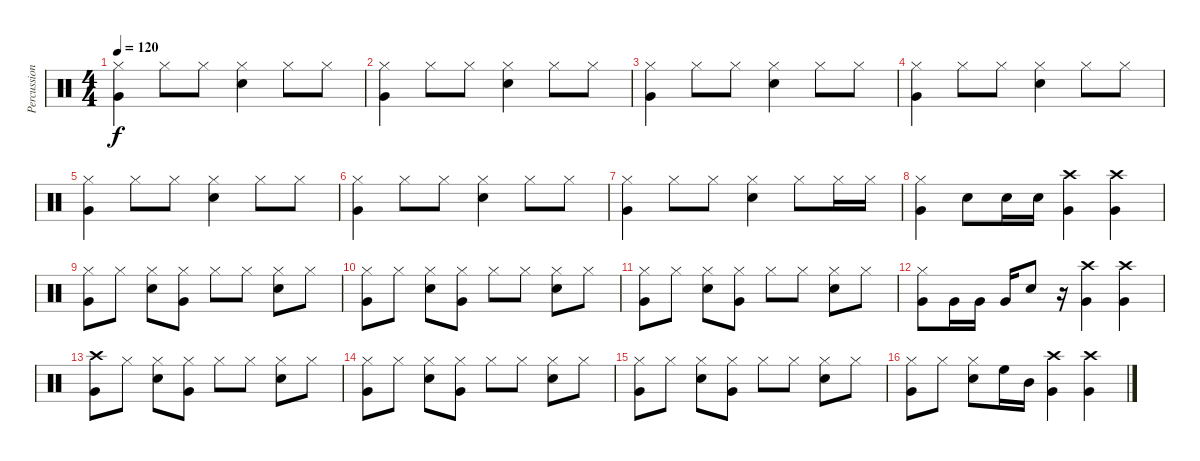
\track ("Percussion" "Percussion") {instrument percussion}
\staff {score}
\articulation defaults
\ts (4 4)
\tempo 120
\clef neutral
\ks c
("Hi-Hat (closed)" "Very Low Tom (hit)").4{dy f} "Hi-Hat (closed)".8 "Hi-Hat (closed)".8 ("Hi-Hat (closed)" "Snare (hit) 2").4 "Hi-Hat (closed)".8 "Hi-Hat (closed)".8 |
("Hi-Hat (closed)" "Very Low Tom (hit)").4 "Hi-Hat (closed)".8 "Hi-Hat (closed)".8 ("Hi-Hat (closed)" "Snare (hit) 2").4 "Hi-Hat (closed)".8 "Hi-Hat (closed)".8 |
("Hi-Hat (closed)" "Very Low Tom (hit)").4 "Hi-Hat (closed)".8 "Hi-Hat (closed)".8 ("Hi-Hat (closed)" "Snare (hit) 2").4 "Hi-Hat (closed)".8 "Hi-Hat (closed)".8 |
("Hi-Hat (closed)" "Very Low Tom (hit)").4 "Hi-Hat (closed)".8 "Hi-Hat (closed)".8 ("Hi-Hat (closed)" "Snare (hit) 2").4 "Hi-Hat (closed)".8 "Hi-Hat (closed)".8 |
("Hi-Hat (closed)" "Very Low Tom (hit)").4 "Hi-Hat (closed)".8 "Hi-Hat (closed)".8 ("Hi-Hat (closed)" "Snare (hit) 2").4 "Hi-Hat (closed)".8 "Hi-Hat (closed)".8 |
("Hi-Hat (closed)" "Very Low Tom (hit)").4 "Hi-Hat (closed)".8 "Hi-Hat (closed)".8 ("Hi-Hat (closed)" "Snare (hit) 2").4 "Hi-Hat (closed)".8 "Hi-Hat (closed)".8 |
("Hi-Hat (closed)" "Very Low Tom (hit)").4 "Hi-Hat (closed)".8 "Hi-Hat (closed)".8 ("Hi-Hat (closed)" "Snare (hit) 2").4 "Hi-Hat (closed)".8 "Hi-Hat (closed)".16 "Hi-Hat (closed)".16 |
("Hi-Hat (closed)" "Very Low Tom (hit)").4 "Snare (hit) 2".8 "Snare (hit) 2".16 "Snare (hit) 2".16 ("Crash high (hit)" "Very Low Tom (hit)").4 ("Crash high (hit)" "Very Low Tom (hit)").4 |
("Hi-Hat (closed)" "Very Low Tom (hit)").8 "Hi-Hat (closed)".8 ("Hi-Hat (closed)" "Snare (hit) 2").8 ("Hi-Hat (closed)" "Very Low Tom (hit)").8 "Hi-Hat (closed)".8 "Hi-Hat (closed)".8 ("Hi-Hat (closed)" "Snare (hit) 2").8 "Hi-Hat (closed)".8 |
("Hi-Hat (closed)" "Very Low Tom (hit)").8 "Hi-Hat (closed)".8 ("Hi-Hat (closed)" "Snare (hit) 2").8 ("Hi-Hat (closed)" "Very Low Tom (hit)").8 "Hi-Hat (closed)".8 "Hi-Hat (closed)".8 ("Hi-Hat (closed)" "Snare (hit) 2").8 "Hi-Hat (closed)".8 |
("Hi-Hat (closed)" "Very Low Tom (hit)").8 "Hi-Hat (closed)".8 ("Hi-Hat (closed)" "Snare (hit) 2").8 ("Hi-Hat (closed)" "Very Low Tom (hit)").8 "Hi-Hat (closed)".8 "Hi-Hat (closed)".8 ("Hi-Hat (closed)" "Snare (hit) 2").8 "Hi-Hat (closed)".8 |
("Hi-Hat (closed)" "Very Low Tom (hit)").8 "Very Low Tom (hit)".16 "Very Low Tom (hit)".16 "Very Low Tom (hit)".16 "Snare (hit) 2".8 r.16 ("Crash high (hit)" "Very Low Tom (hit)").4 ("Crash high (hit)" "Very Low Tom (hit)").4 |
("Crash high (hit)" "Very Low Tom (hit)").8 "Hi-Hat (closed)".8 ("Hi-Hat (closed)" "Snare (hit) 2").8 ("Hi-Hat (closed)" "Very Low Tom (hit)").8 "Hi-Hat (closed)".8 "Hi-Hat (closed)".8 ("Hi-Hat (closed)" "Snare (hit) 2").8 "Hi-Hat (closed)".8 |
("Hi-Hat (closed)" "Very Low Tom (hit)").8 "Hi-Hat (closed)".8 ("Hi-Hat (closed)" "Snare (hit) 2").8 ("Hi-Hat (closed)" "Very Low Tom (hit)").8 "Hi-Hat (closed)".8 "Hi-Hat (closed)".8 ("Hi-Hat (closed)" "Snare (hit) 2").8 "Hi-Hat (closed)".8 |
("Hi-Hat (closed)" "Very Low Tom (hit)").8 "Hi-Hat (closed)".8 ("Hi-Hat (closed)" "Snare (hit) 2").8 ("Hi-Hat (closed)" "Very Low Tom (hit)").8 "Hi-Hat (closed)".8 "Hi-Hat (closed)".8 ("Hi-Hat (closed)" "Snare (hit) 2").8 "Hi-Hat (closed)".8 |
("Hi-Hat (closed)" "Very Low Tom (hit)").8 "Hi-Hat (closed)".8 ("Hi-Hat (closed)" "Snare (hit) 2").8 "High Floor Tom (hit)".16 "Mid Tom (hit)".16 ("Crash high (hit)" "Very Low Tom (hit)").4 ("Crash high (hit)" "Very Low Tom (hit)").4
